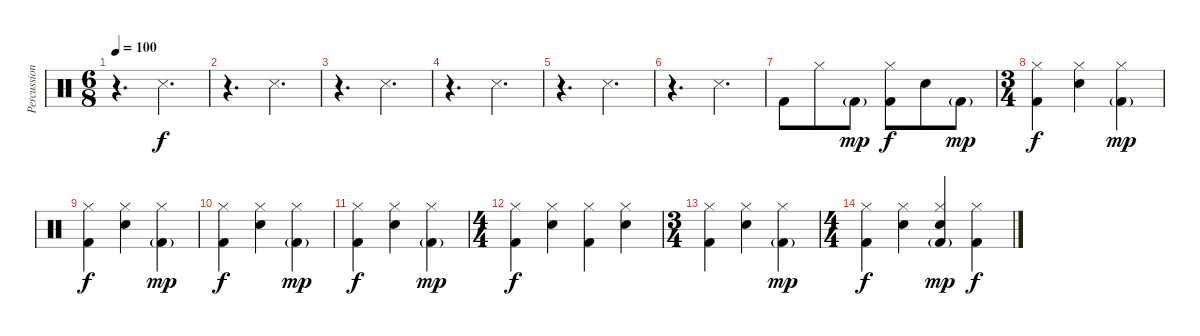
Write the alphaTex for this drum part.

\track ("Percussion" "Percussion") {instrument percussion}
\staff {score}
\articulation defaults
\ts (6 8)
\tempo 100
\clef neutral
\ks c
r.4{d dy f} "Snare (side stick) 3".4{d} |
r.4{d} "Snare (side stick) 3".4{d} |
r.4{d} "Snare (side stick) 3".4{d} |
r.4{d} "Snare (side stick) 3".4{d} |
r.4{d} "Snare (side stick) 3".4{d} |
r.4{d} "Snare (side stick) 3".4{d} |
"Kick (hit) 2".8 "Hi-Hat (closed)".8 "Kick (hit) 2"{g}.8{dy mp} ("Hi-Hat (closed)" "Kick (hit) 2").8{dy f} "Snare (hit) 2".8 "Kick (hit) 2"{g}.8{dy mp} |
\ts (3 4)
("Hi-Hat (closed)" "Kick (hit) 2").4{dy f} ("Hi-Hat (closed)" "Snare (hit) 2").4 ("Hi-Hat (closed)" "Kick (hit) 2"{g}).4{dy mp} |
("Hi-Hat (closed)" "Kick (hit) 2").4{dy f} ("Hi-Hat (closed)" "Snare (hit) 2").4 ("Hi-Hat (closed)" "Kick (hit) 2"{g}).4{dy mp} |
("Hi-Hat (closed)" "Kick (hit) 2").4{dy f} ("Hi-Hat (closed)" "Snare (hit) 2").4 ("Hi-Hat (closed)" "Kick (hit) 2"{g}).4{dy mp} |
("Hi-Hat (closed)" "Kick (hit) 2").4{dy f} ("Hi-Hat (closed)" "Snare (hit) 2").4 ("Hi-Hat (closed)" "Kick (hit) 2"{g}).4{dy mp} |
\ts (4 4)
("Hi-Hat (closed)" "Kick (hit) 2").4{dy f} ("Hi-Hat (closed)" "Snare (hit) 2").4 ("Hi-Hat (closed)" "Kick (hit) 2").4 ("Hi-Hat (closed)" "Snare (hit) 2").4 |
\ts (3 4)
("Hi-Hat (closed)" "Kick (hit) 2").4 ("Hi-Hat (closed)" "Snare (hit) 2").4 ("Hi-Hat (closed)" "Kick (hit) 2"{g}).4{dy mp} |
\ts (4 4)
("Hi-Hat (closed)" "Kick (hit) 2").4{dy f} ("Hi-Hat (closed)" "Snare (hit) 2").4 ("Hi-Hat (closed)" "Snare (hit) 2" "Kick (hit) 2"{g}).4{dy mp} ("Hi-Hat (closed)" "Kick (hit) 2").4{dy f}
